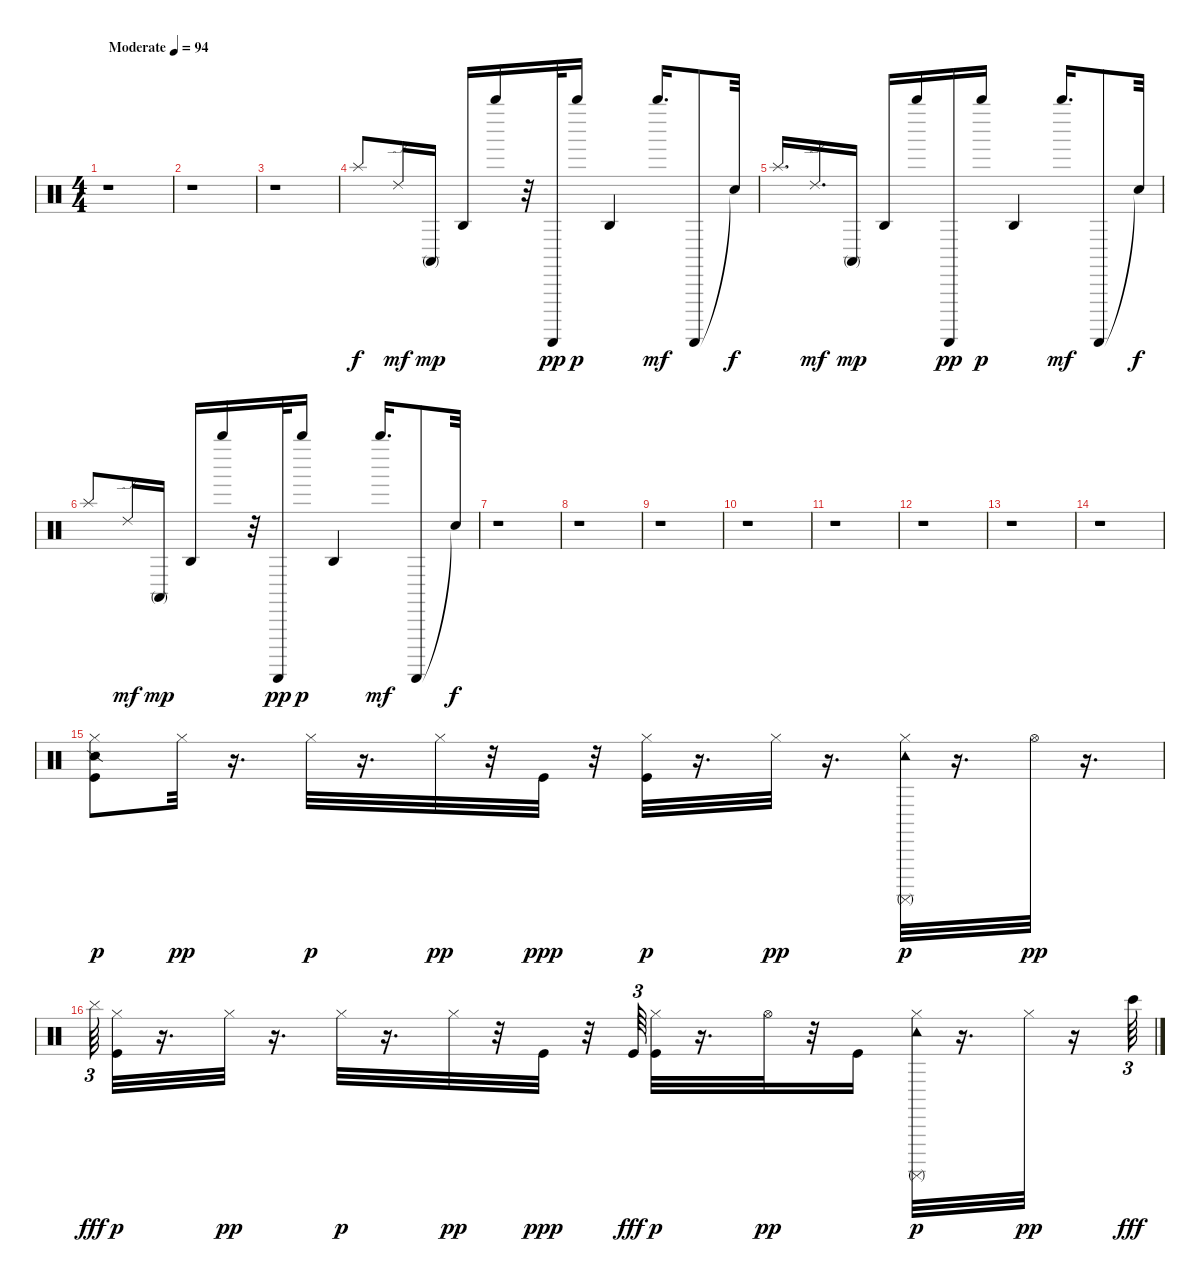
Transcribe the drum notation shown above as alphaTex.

\track "" {instrument percussion}
\staff {score}
\articulation defaults
\ts (4 4)
\tempo (94 "Moderate")
\clef neutral
\ks c
r.1{dy f} |
r.1 |
r.1 |
"Splash (hit)".8{volume 9 balance 8} "Ride (edge) 2".16{dy mf volume 12 balance 8} "Conga high (mute)".16{dy mp volume 9} "Agogo high (hit)".16 "Whistle high (hit)".16{volume 12} r.32 "Guiro (scrap-return)".32{dy pp volume 12} "Whistle high (hit)".16{dy p volume 12} "Agogo high (hit)".4{volume 14} "Whistle high (hit)".16{d dy mf volume 16} "Guiro (scrap-return)".8{volume 16} "Snare (hit)"{t}.32{dy f} |
"Splash (hit)".16{d} "Ride (edge) 2".16{d dy mf} "Conga high (mute)".16{dy mp} "Agogo high (hit)".16 "Whistle high (hit)".16 "Guiro (scrap-return)".16{dy pp} "Whistle high (hit)".16{dy p} "Agogo high (hit)".4 "Whistle high (hit)".16{d dy mf} "Guiro (scrap-return)".8 "Snare (hit)"{t}.32{dy f} |
"Splash (hit)".8{volume 9 balance 8} "Ride (edge) 2".16{dy mf} "Conga high (mute)".16{dy mp volume 9} "Agogo high (hit)".16 "Whistle high (hit)".16{volume 12} r.32 "Guiro (scrap-return)".32{dy pp volume 12} "Whistle high (hit)".16{dy p volume 12} "Agogo high (hit)".4{volume 14} "Whistle high (hit)".16{d dy mf volume 16} "Guiro (scrap-return)".8 "Snare (hit)"{t}.32{dy f} |
r.1 |
r.1 |
r.1 |
r.1 |
r.1 |
r.1 |
r.1 |
r.1 |
("Snare (side stick) 2" "Kick (hit)" "Hi-Hat (closed)").8{dy p volume 11 balance 8} "Hi-Hat (closed)".32{dy pp} r.16{d} "Hi-Hat (closed)".32{dy p} r.16{d} "Hi-Hat (closed)".32{dy pp} r.32 "Kick (hit)".32{dy ppp} r.32 ("Kick (hit)" "Hi-Hat (closed)").32{dy p} r.16{d} "Hi-Hat (closed)".32{dy pp} r.16{d} ("Surdo (mute)" "Hi-Hat (closed)" "Tambourine (hit)").32{dy p} r.16{d} "Hi-Hat (open)".32{dy pp} r.16{d} |
"Cymbal (hit)".64{tu (3 2) dy fff} ("Kick (hit)" "Hi-Hat (closed)").32{dy p} r.16{d} "Hi-Hat (closed)".32{dy pp} r.16{d} "Hi-Hat (closed)".32{dy p} r.16{d} "Hi-Hat (closed)".32{dy pp} r.32 "Kick (hit)".32{dy ppp} r.32 "Kick (hit)".64{tu (3 2) dy fff} ("Kick (hit)" "Hi-Hat (closed)").32{dy p} r.16{d} "Hi-Hat (open)".32{dy pp} r.32 "Kick (hit)".16 ("Surdo (mute)" "Hi-Hat (closed)" "Tambourine (hit)").32{dy p} r.16{d} "Hi-Hat (closed)".32{dy pp} r.16 "Bongo High (hit)".64{tu (3 2) dy fff}
